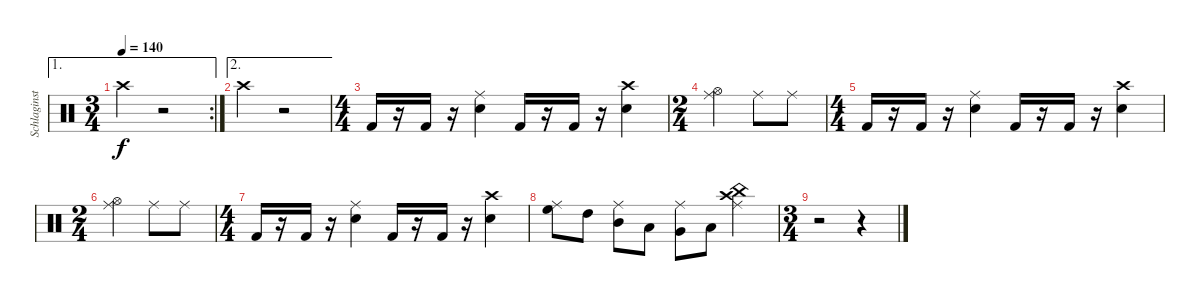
\track ("Schlaginstrumente - Auswahl" "Schlaginst") {instrument percussion}
\staff {score}
\articulation defaults
\ae 1
\rc 2
\ts (3 4)
\tempo 140
\clef neutral
\ks c "Crash high (hit)".4{dy f}
r.2 |
\ae 2 "Crash high (hit)".4
r.2 |
\ts (4 4)
"Kick (hit) 2".16 r.16 "Kick (hit) 2".16 r.16 ("Snare (hit) 2" "Ride (middle)").4 "Kick (hit) 2".16 r.16 "Kick (hit) 2".16 r.16 ("Snare (hit) 2" "Crash high (hit)").4 |
\ts (2 4)
("Hi-Hat (open)" "Ride (middle)").4 "Ride (middle)".8 "Ride (middle)".8 |
\ts (4 4)
"Kick (hit) 2".16 r.16 "Kick (hit) 2".16 r.16 ("Snare (hit) 2" "Ride (middle)").4 "Kick (hit) 2".16 r.16 "Kick (hit) 2".16 r.16 ("Snare (hit) 2" "Crash high (hit)").4 |
\ts (2 4)
("Hi-Hat (open)" "Ride (middle)").4 "Ride (middle)".8 "Ride (middle)".8 |
\ts (4 4)
"Kick (hit) 2".16 r.16 "Kick (hit) 2".16 r.16 ("Snare (hit) 2" "Ride (middle)").4 "Kick (hit) 2".16 r.16 "Kick (hit) 2".16 r.16 ("Snare (hit) 2" "Crash high (hit)").4 |
("Ride (middle)" "High Floor Tom (hit)").8 "High Tom (hit)".8 ("Ride (middle)" "Mid Tom (hit)").8 "Low Tom (hit)".8 ("Ride (middle)" "Very Low Tom (hit)").8 "Low Floor Tom (hit)".8 ("China (hit)" "Crash high (hit)" "Ride (middle)").4 |
\ts (3 4)
r.2 r.4
